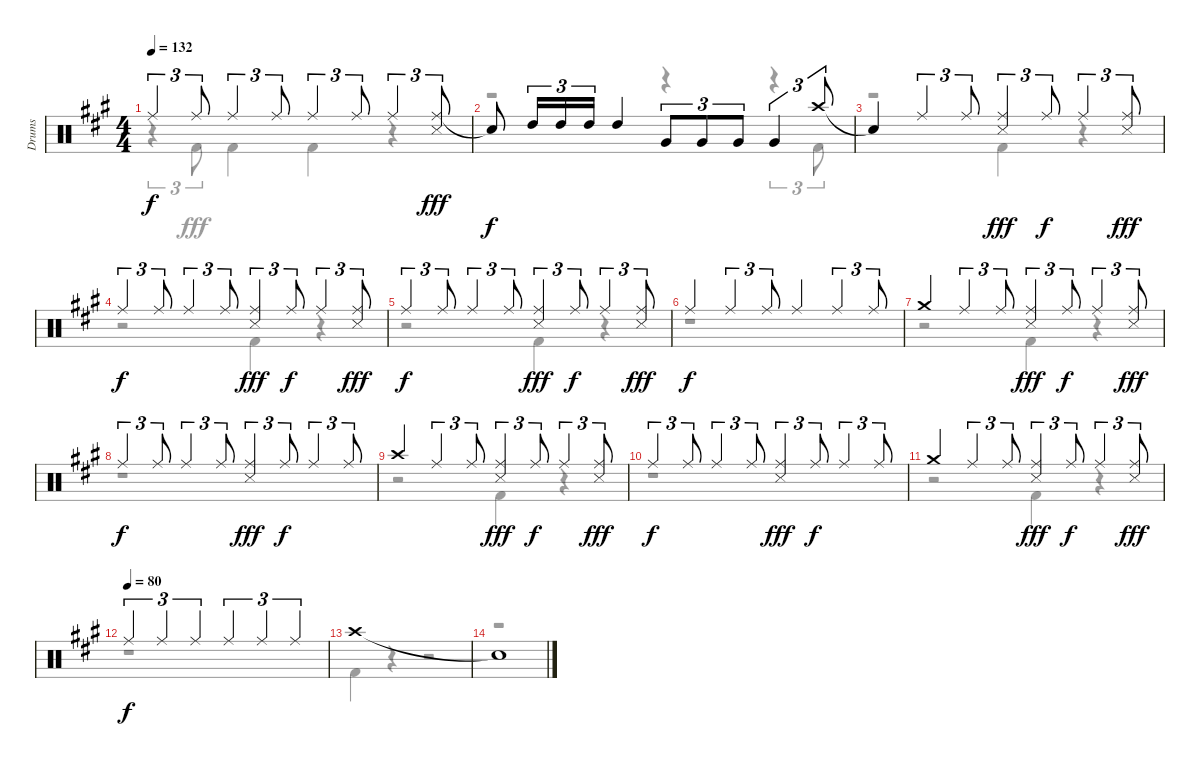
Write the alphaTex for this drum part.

\track ("Drums" "Drums") {instrument percussion}
\staff {score}
\articulation defaults
\voice
\ts (4 4)
\tempo 132
\clef neutral
\ks a "Ride (middle)".4{tu (3 2) dy f} "Ride (middle)".8{tu (3 2)} "Ride (middle)".4{tu (3 2)} "Ride (middle)".8{tu (3 2)} "Ride (middle)".4{tu (3 2)} "Ride (middle)".8{tu (3 2)} "Ride (middle)".4{tu (3 2)}
("Ride (middle)" "Snare (side stick) 3").8{tu (3 2) dy fff} |
"Snare (hit)"{t}.8{dy f} "High Tom (hit)".16{tu (3 2)} "High Tom (hit)".16{tu (3 2)} "High Tom (hit)".16{tu (3 2)} "High Tom (hit)".4 "Very Low Tom (hit)".8{tu (3 2)} "Very Low Tom (hit)".8{tu (3 2)} "Very Low Tom (hit)".8{tu (3 2)} "Very Low Tom (hit)".4{tu (3 2)} "Crash high (hit)".8{tu (3 2)} |
"Snare (hit)"{t}.4 "Ride (middle)".4{tu (3 2)} "Ride (middle)".8{tu (3 2)} ("Ride (middle)" "Snare (side stick) 3").4{tu (3 2) dy fff} "Ride (middle)".8{tu (3 2) dy f} "Ride (middle)".4{tu (3 2)} ("Ride (middle)" "Snare (side stick) 3").8{tu (3 2) dy fff} |
"Ride (middle)".4{tu (3 2) dy f} "Ride (middle)".8{tu (3 2)} "Ride (middle)".4{tu (3 2)} "Ride (middle)".8{tu (3 2)} ("Ride (middle)" "Snare (side stick) 3").4{tu (3 2) dy fff} "Ride (middle)".8{tu (3 2) dy f} "Ride (middle)".4{tu (3 2)} ("Ride (middle)" "Snare (side stick) 3").8{tu (3 2) dy fff} |
"Ride (middle)".4{tu (3 2) dy f} "Ride (middle)".8{tu (3 2)} "Ride (middle)".4{tu (3 2)} "Ride (middle)".8{tu (3 2)} ("Ride (middle)" "Snare (side stick) 3").4{tu (3 2) dy fff} "Ride (middle)".8{tu (3 2) dy f} "Ride (middle)".4{tu (3 2)} ("Ride (middle)" "Snare (side stick) 3").8{tu (3 2) dy fff} |
"Ride (middle)".4{dy f} "Ride (middle)".4{tu (3 2)} "Ride (middle)".8{tu (3 2)} "Ride (middle)".4 "Ride (middle)".4{tu (3 2)} "Ride (middle)".8{tu (3 2)} |
"Crash medium (hit)".4 "Ride (middle)".4{tu (3 2)} "Ride (middle)".8{tu (3 2)} ("Ride (middle)" "Snare (side stick) 3").4{tu (3 2) dy fff} "Ride (middle)".8{tu (3 2) dy f} "Ride (middle)".4{tu (3 2)} ("Ride (middle)" "Snare (side stick) 3").8{tu (3 2) dy fff} |
"Ride (middle)".4{tu (3 2) dy f} "Ride (middle)".8{tu (3 2)} "Ride (middle)".4{tu (3 2)} "Ride (middle)".8{tu (3 2)} ("Ride (middle)" "Snare (side stick) 3").4{tu (3 2) dy fff} "Ride (middle)".8{tu (3 2) dy f} "Ride (middle)".4{tu (3 2)} "Ride (middle)".8{tu (3 2)} |
"Crash high (hit)".4 "Ride (middle)".4{tu (3 2)} "Ride (middle)".8{tu (3 2)} ("Ride (middle)" "Snare (side stick) 3").4{tu (3 2) dy fff} "Ride (middle)".8{tu (3 2) dy f} "Ride (middle)".4{tu (3 2)} ("Ride (middle)" "Snare (side stick) 3").8{tu (3 2) dy fff} |
"Ride (middle)".4{tu (3 2) dy f} "Ride (middle)".8{tu (3 2)} "Ride (middle)".4{tu (3 2)} "Ride (middle)".8{tu (3 2)} ("Ride (middle)" "Snare (side stick) 3").4{tu (3 2) dy fff} "Ride (middle)".8{tu (3 2) dy f} "Ride (middle)".4{tu (3 2)} "Ride (middle)".8{tu (3 2)} |
"Crash medium (hit)".4 "Ride (middle)".4{tu (3 2)} "Ride (middle)".8{tu (3 2)} ("Ride (middle)" "Snare (side stick) 3").4{tu (3 2) dy fff} "Ride (middle)".8{tu (3 2) dy f} "Ride (middle)".4{tu (3 2)} ("Ride (middle)" "Snare (side stick) 3").8{tu (3 2) dy fff} |
\tempo (80)
"Ride (middle)".4{tu (3 2) dy f} "Ride (middle)".4{tu (3 2)} "Ride (middle)".4{tu (3 2)} "Ride (middle)".4{tu (3 2)} "Ride (middle)".4{tu (3 2)} "Ride (middle)".4{tu (3 2)} |
"Crash high (hit)".1 |
"Snare (hit)"{t}.1
\voice
\clef neutral
\ottava regular
\simile none
\ks a
r.4{tu (3 2) dy fff} "Kick (hit) 2".8{tu (3 2)} "Kick (hit) 2".4 "Kick (hit) 2".4 r.4 |
r.2 r.4 r.4{tu (3 2)} "Kick (hit) 2".8{tu (3 2)} |
r.2 "Kick (hit) 2".4 r.4 |
r.2 "Kick (hit) 2".4 r.4 |
r.2 "Kick (hit) 2".4 r.4 |
r.1 |
r.2 "Kick (hit) 2".4 r.4 |
r.1 |
r.2 "Kick (hit) 2".4 r.4 |
r.1 |
r.2 "Kick (hit) 2".4 r.4 |
r.1 |
"Kick (hit) 2".4 r.4 r.2 |
r.1
